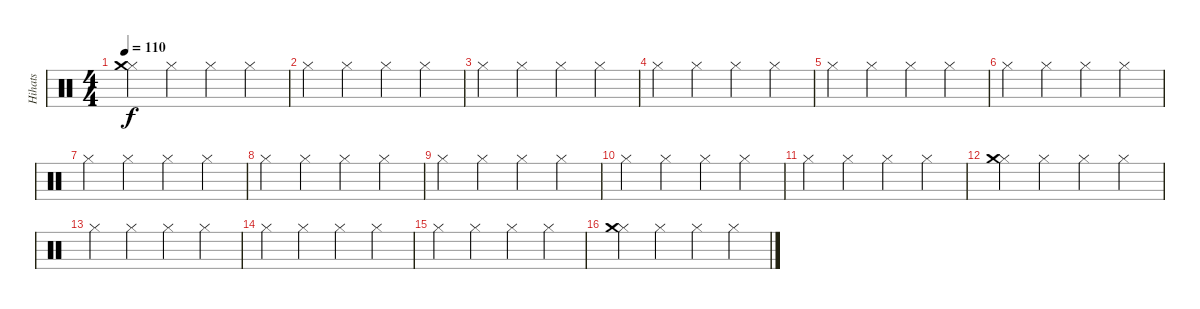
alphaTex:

\track ("Hihats" "Hihats") {instrument percussion}
\staff {score}
\articulation defaults
\ts (4 4)
\tempo 110
\clef neutral
\ks c
("Hi-Hat (closed)" "Crash medium (hit)").4{dy f} "Hi-Hat (closed)".4 "Hi-Hat (closed)".4 "Hi-Hat (closed)".4 |
"Hi-Hat (closed)".4 "Hi-Hat (closed)".4 "Hi-Hat (closed)".4 "Hi-Hat (closed)".4 |
"Hi-Hat (closed)".4 "Hi-Hat (closed)".4 "Hi-Hat (closed)".4 "Hi-Hat (closed)".4 |
"Hi-Hat (closed)".4 "Hi-Hat (closed)".4 "Hi-Hat (closed)".4 "Hi-Hat (closed)".4 |
"Hi-Hat (closed)".4 "Hi-Hat (closed)".4 "Hi-Hat (closed)".4 "Hi-Hat (closed)".4 |
"Hi-Hat (closed)".4 "Hi-Hat (closed)".4 "Hi-Hat (closed)".4 "Hi-Hat (closed)".4 |
"Hi-Hat (closed)".4 "Hi-Hat (closed)".4 "Hi-Hat (closed)".4 "Hi-Hat (closed)".4 |
"Hi-Hat (closed)".4 "Hi-Hat (closed)".4 "Hi-Hat (closed)".4 "Hi-Hat (closed)".4 |
"Hi-Hat (closed)".4 "Hi-Hat (closed)".4 "Hi-Hat (closed)".4 "Hi-Hat (closed)".4 |
"Hi-Hat (closed)".4 "Hi-Hat (closed)".4 "Hi-Hat (closed)".4 "Hi-Hat (closed)".4 |
"Hi-Hat (closed)".4 "Hi-Hat (closed)".4 "Hi-Hat (closed)".4 "Hi-Hat (closed)".4 |
("Hi-Hat (closed)" "Crash medium (hit)").4 "Hi-Hat (closed)".4 "Hi-Hat (closed)".4 "Hi-Hat (closed)".4 |
"Hi-Hat (closed)".4 "Hi-Hat (closed)".4 "Hi-Hat (closed)".4 "Hi-Hat (closed)".4 |
"Hi-Hat (closed)".4 "Hi-Hat (closed)".4 "Hi-Hat (closed)".4 "Hi-Hat (closed)".4 |
"Hi-Hat (closed)".4 "Hi-Hat (closed)".4 "Hi-Hat (closed)".4 "Hi-Hat (closed)".4 |
("Hi-Hat (closed)" "Crash medium (hit)").4 "Hi-Hat (closed)".4 "Hi-Hat (closed)".4 "Hi-Hat (closed)".4
